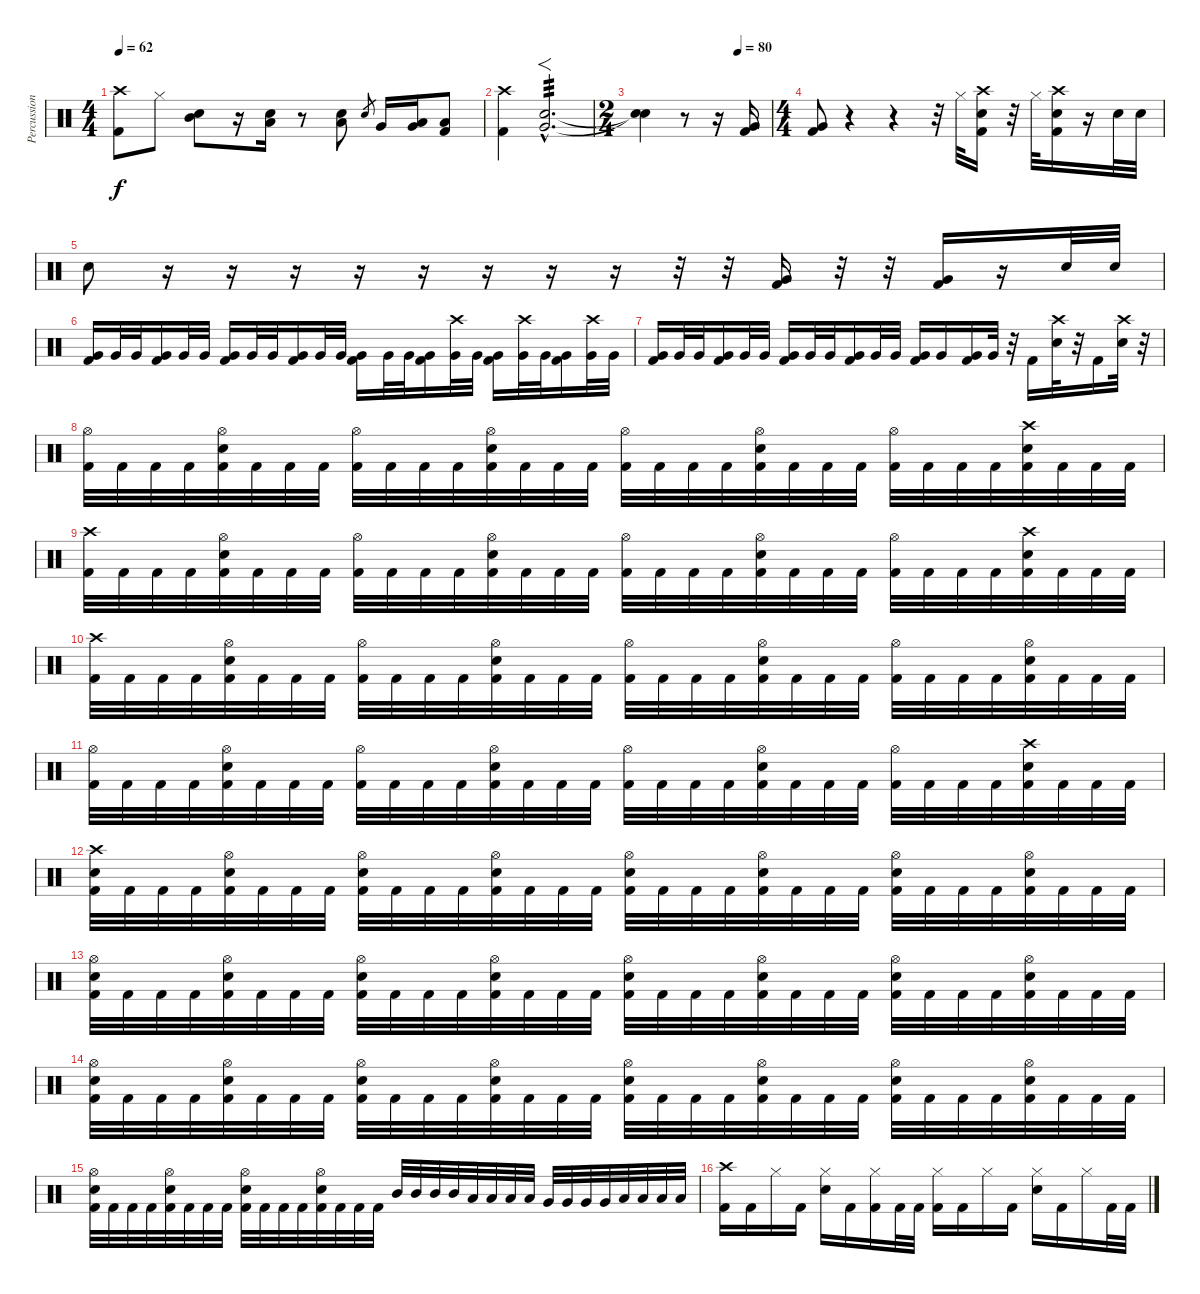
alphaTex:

\track ("Percussions" "Percussion") {instrument percussion}
\staff {score}
\articulation defaults
\ts (4 4)
\tempo 62
\clef neutral
\ks c
("Crash high (hit)" "Kick (hit) 2").8{dy f} "Hi-Hat (closed)".8 ("Electric Snare (hit)" "Mid Tom (hit)").8 r.16 ("Electric Snare (hit)" "Low Tom (hit)").16 r.8 ("Electric Snare (hit)" "Low Floor Tom (hit)").8 "Electric Snare (hit)".8{gr} "Very Low Tom (hit)".16 ("Very Low Tom (hit)" "Low Floor Tom (hit)").16 ("Low Floor Tom (hit)" "Kick (hit) 2").8 |
("Crash high (hit)" "Kick (hit) 2").4 ("Very Low Tom (hit)"{hac} "Electric Snare (hit)"{hac}).2{f d tp 3} |
\ts (2 4)
\tempo (120 0.75)
\tempo (80 0.75)
("Snare (hit)"{t} "Snare (hit)"{t}).4 r.8 r.16 ("Very Low Tom (hit)" "Kick (hit) 2").16 |
\ts (4 4)
("Very Low Tom (hit)" "Kick (hit) 2").8 r.4 r.4 r.32 "Hi-Hat (closed)".32 ("Crash high (hit)" "Electric Snare (hit)" "Kick (hit) 2").16 r.32 "Hi-Hat (closed)".32 ("Crash high (hit)" "Electric Snare (hit)" "Kick (hit) 2").16 r.16 "Electric Snare (hit)".32 "Electric Snare (hit)".32 |
"Electric Snare (hit)".8 r.16 r.16 r.16 r.16 r.16 r.16 r.16 r.16 r.32 r.32 ("Very Low Tom (hit)" "Kick (hit) 2").16 r.32 r.32 ("Very Low Tom (hit)" "Kick (hit) 2").16 r.16 "Electric Snare (hit)".32 "Electric Snare (hit)".32 |
("Very Low Tom (hit)" "Kick (hit) 2").16 "Very Low Tom (hit)".32 "Very Low Tom (hit)".32 ("Very Low Tom (hit)" "Kick (hit) 2").16 "Very Low Tom (hit)".32 "Very Low Tom (hit)".32 ("Very Low Tom (hit)" "Kick (hit) 2").16 "Very Low Tom (hit)".32 "Very Low Tom (hit)".32 ("Very Low Tom (hit)" "Kick (hit) 2").16 "Very Low Tom (hit)".32 "Very Low Tom (hit)".32 ("Very Low Tom (hit)" "Kick (hit) 2").16 "Very Low Tom (hit)".32 "Very Low Tom (hit)".32 ("Very Low Tom (hit)" "Kick (hit) 2").16 ("Crash high (hit)" "Very Low Tom (hit)").32 "Very Low Tom (hit)".32 ("Very Low Tom (hit)" "Kick (hit) 2").16 ("Crash high (hit)" "Very Low Tom (hit)").32 "Very Low Tom (hit)".32 ("Very Low Tom (hit)" "Kick (hit) 2").16 ("Crash high (hit)" "Very Low Tom (hit)").32 "Very Low Tom (hit)".32 |
("Very Low Tom (hit)" "Kick (hit) 2").16 "Very Low Tom (hit)".32 "Very Low Tom (hit)".32 ("Very Low Tom (hit)" "Kick (hit) 2").16 "Very Low Tom (hit)".32 "Very Low Tom (hit)".32 ("Very Low Tom (hit)" "Kick (hit) 2").16 "Very Low Tom (hit)".32 "Very Low Tom (hit)".32 ("Very Low Tom (hit)" "Kick (hit) 2").16 "Very Low Tom (hit)".32 "Very Low Tom (hit)".32 ("Very Low Tom (hit)" "Kick (hit) 2").16 "Very Low Tom (hit)".16 ("Very Low Tom (hit)" "Kick (hit) 2").16 "Very Low Tom (hit)".32 r.32 "Kick (hit) 2".16 ("Crash high (hit)" "Electric Snare (hit)").32 r.32 "Kick (hit) 2".16 ("Crash high (hit)" "Electric Snare (hit)").32 r.32 |
("Hi-Hat (open)" "Kick (hit) 2").32 "Kick (hit) 2".32 "Kick (hit) 2".32 "Kick (hit) 2".32 ("Hi-Hat (open)" "Electric Snare (hit)" "Kick (hit) 2").32 "Kick (hit) 2".32 "Kick (hit) 2".32 "Kick (hit) 2".32 ("Hi-Hat (open)" "Kick (hit) 2").32 "Kick (hit) 2".32 "Kick (hit) 2".32 "Kick (hit) 2".32 ("Hi-Hat (open)" "Electric Snare (hit)" "Kick (hit) 2").32 "Kick (hit) 2".32 "Kick (hit) 2".32 "Kick (hit) 2".32 ("Hi-Hat (open)" "Kick (hit) 2").32 "Kick (hit) 2".32 "Kick (hit) 2".32 "Kick (hit) 2".32 ("Hi-Hat (open)" "Electric Snare (hit)" "Kick (hit) 2").32 "Kick (hit) 2".32 "Kick (hit) 2".32 "Kick (hit) 2".32 ("Hi-Hat (open)" "Kick (hit) 2").32 "Kick (hit) 2".32 "Kick (hit) 2".32 "Kick (hit) 2".32 ("Crash high (hit)" "Electric Snare (hit)" "Kick (hit) 2").32 "Kick (hit) 2".32 "Kick (hit) 2".32 "Kick (hit) 2".32 |
("Crash high (hit)" "Kick (hit) 2").32 "Kick (hit) 2".32 "Kick (hit) 2".32 "Kick (hit) 2".32 ("Hi-Hat (open)" "Electric Snare (hit)" "Kick (hit) 2").32 "Kick (hit) 2".32 "Kick (hit) 2".32 "Kick (hit) 2".32 ("Hi-Hat (open)" "Kick (hit) 2").32 "Kick (hit) 2".32 "Kick (hit) 2".32 "Kick (hit) 2".32 ("Hi-Hat (open)" "Electric Snare (hit)" "Kick (hit) 2").32 "Kick (hit) 2".32 "Kick (hit) 2".32 "Kick (hit) 2".32 ("Hi-Hat (open)" "Kick (hit) 2").32 "Kick (hit) 2".32 "Kick (hit) 2".32 "Kick (hit) 2".32 ("Hi-Hat (open)" "Electric Snare (hit)" "Kick (hit) 2").32 "Kick (hit) 2".32 "Kick (hit) 2".32 "Kick (hit) 2".32 ("Hi-Hat (open)" "Kick (hit) 2").32 "Kick (hit) 2".32 "Kick (hit) 2".32 "Kick (hit) 2".32 ("Crash high (hit)" "Electric Snare (hit)" "Kick (hit) 2").32 "Kick (hit) 2".32 "Kick (hit) 2".32 "Kick (hit) 2".32 |
("Crash high (hit)" "Kick (hit) 2").32 "Kick (hit) 2".32 "Kick (hit) 2".32 "Kick (hit) 2".32 ("Hi-Hat (open)" "Electric Snare (hit)" "Kick (hit) 2").32 "Kick (hit) 2".32 "Kick (hit) 2".32 "Kick (hit) 2".32 ("Hi-Hat (open)" "Kick (hit) 2").32 "Kick (hit) 2".32 "Kick (hit) 2".32 "Kick (hit) 2".32 ("Hi-Hat (open)" "Electric Snare (hit)" "Kick (hit) 2").32 "Kick (hit) 2".32 "Kick (hit) 2".32 "Kick (hit) 2".32 ("Hi-Hat (open)" "Kick (hit) 2").32 "Kick (hit) 2".32 "Kick (hit) 2".32 "Kick (hit) 2".32 ("Hi-Hat (open)" "Electric Snare (hit)" "Kick (hit) 2").32 "Kick (hit) 2".32 "Kick (hit) 2".32 "Kick (hit) 2".32 ("Hi-Hat (open)" "Kick (hit) 2").32 "Kick (hit) 2".32 "Kick (hit) 2".32 "Kick (hit) 2".32 ("Hi-Hat (open)" "Electric Snare (hit)" "Kick (hit) 2").32 "Kick (hit) 2".32 "Kick (hit) 2".32 "Kick (hit) 2".32 |
("Hi-Hat (open)" "Kick (hit) 2").32 "Kick (hit) 2".32 "Kick (hit) 2".32 "Kick (hit) 2".32 ("Hi-Hat (open)" "Electric Snare (hit)" "Kick (hit) 2").32 "Kick (hit) 2".32 "Kick (hit) 2".32 "Kick (hit) 2".32 ("Hi-Hat (open)" "Kick (hit) 2").32 "Kick (hit) 2".32 "Kick (hit) 2".32 "Kick (hit) 2".32 ("Hi-Hat (open)" "Electric Snare (hit)" "Kick (hit) 2").32 "Kick (hit) 2".32 "Kick (hit) 2".32 "Kick (hit) 2".32 ("Hi-Hat (open)" "Kick (hit) 2").32 "Kick (hit) 2".32 "Kick (hit) 2".32 "Kick (hit) 2".32 ("Hi-Hat (open)" "Electric Snare (hit)" "Kick (hit) 2").32 "Kick (hit) 2".32 "Kick (hit) 2".32 "Kick (hit) 2".32 ("Hi-Hat (open)" "Kick (hit) 2").32 "Kick (hit) 2".32 "Kick (hit) 2".32 "Kick (hit) 2".32 ("Crash high (hit)" "Electric Snare (hit)" "Kick (hit) 2").32 "Kick (hit) 2".32 "Kick (hit) 2".32 "Kick (hit) 2".32 |
("Crash high (hit)" "Electric Snare (hit)" "Kick (hit) 2").32 "Kick (hit) 2".32 "Kick (hit) 2".32 "Kick (hit) 2".32 ("Hi-Hat (open)" "Electric Snare (hit)" "Kick (hit) 2").32 "Kick (hit) 2".32 "Kick (hit) 2".32 "Kick (hit) 2".32 ("Hi-Hat (open)" "Electric Snare (hit)" "Kick (hit) 2").32 "Kick (hit) 2".32 "Kick (hit) 2".32 "Kick (hit) 2".32 ("Hi-Hat (open)" "Electric Snare (hit)" "Kick (hit) 2").32 "Kick (hit) 2".32 "Kick (hit) 2".32 "Kick (hit) 2".32 ("Hi-Hat (open)" "Electric Snare (hit)" "Kick (hit) 2").32 "Kick (hit) 2".32 "Kick (hit) 2".32 "Kick (hit) 2".32 ("Hi-Hat (open)" "Electric Snare (hit)" "Kick (hit) 2").32 "Kick (hit) 2".32 "Kick (hit) 2".32 "Kick (hit) 2".32 ("Hi-Hat (open)" "Electric Snare (hit)" "Kick (hit) 2").32 "Kick (hit) 2".32 "Kick (hit) 2".32 "Kick (hit) 2".32 ("Hi-Hat (open)" "Electric Snare (hit)" "Kick (hit) 2").32 "Kick (hit) 2".32 "Kick (hit) 2".32 "Kick (hit) 2".32 |
("Hi-Hat (open)" "Electric Snare (hit)" "Kick (hit) 2").32 "Kick (hit) 2".32 "Kick (hit) 2".32 "Kick (hit) 2".32 ("Hi-Hat (open)" "Electric Snare (hit)" "Kick (hit) 2").32 "Kick (hit) 2".32 "Kick (hit) 2".32 "Kick (hit) 2".32 ("Hi-Hat (open)" "Electric Snare (hit)" "Kick (hit) 2").32 "Kick (hit) 2".32 "Kick (hit) 2".32 "Kick (hit) 2".32 ("Hi-Hat (open)" "Electric Snare (hit)" "Kick (hit) 2").32 "Kick (hit) 2".32 "Kick (hit) 2".32 "Kick (hit) 2".32 ("Hi-Hat (open)" "Electric Snare (hit)" "Kick (hit) 2").32 "Kick (hit) 2".32 "Kick (hit) 2".32 "Kick (hit) 2".32 ("Hi-Hat (open)" "Electric Snare (hit)" "Kick (hit) 2").32 "Kick (hit) 2".32 "Kick (hit) 2".32 "Kick (hit) 2".32 ("Hi-Hat (open)" "Electric Snare (hit)" "Kick (hit) 2").32 "Kick (hit) 2".32 "Kick (hit) 2".32 "Kick (hit) 2".32 ("Hi-Hat (open)" "Electric Snare (hit)" "Kick (hit) 2").32 "Kick (hit) 2".32 "Kick (hit) 2".32 "Kick (hit) 2".32 |
("Hi-Hat (open)" "Electric Snare (hit)" "Kick (hit) 2").32 "Kick (hit) 2".32 "Kick (hit) 2".32 "Kick (hit) 2".32 ("Hi-Hat (open)" "Electric Snare (hit)" "Kick (hit) 2").32 "Kick (hit) 2".32 "Kick (hit) 2".32 "Kick (hit) 2".32 ("Hi-Hat (open)" "Electric Snare (hit)" "Kick (hit) 2").32 "Kick (hit) 2".32 "Kick (hit) 2".32 "Kick (hit) 2".32 ("Hi-Hat (open)" "Electric Snare (hit)" "Kick (hit) 2").32 "Kick (hit) 2".32 "Kick (hit) 2".32 "Kick (hit) 2".32 ("Hi-Hat (open)" "Electric Snare (hit)" "Kick (hit) 2").32 "Kick (hit) 2".32 "Kick (hit) 2".32 "Kick (hit) 2".32 ("Hi-Hat (open)" "Electric Snare (hit)" "Kick (hit) 2").32 "Kick (hit) 2".32 "Kick (hit) 2".32 "Kick (hit) 2".32 ("Hi-Hat (open)" "Electric Snare (hit)" "Kick (hit) 2").32 "Kick (hit) 2".32 "Kick (hit) 2".32 "Kick (hit) 2".32 ("Hi-Hat (open)" "Electric Snare (hit)" "Kick (hit) 2").32 "Kick (hit) 2".32 "Kick (hit) 2".32 "Kick (hit) 2".32 |
("Hi-Hat (open)" "Electric Snare (hit)" "Kick (hit) 2").32 "Kick (hit) 2".32 "Kick (hit) 2".32 "Kick (hit) 2".32 ("Hi-Hat (open)" "Electric Snare (hit)" "Kick (hit) 2").32 "Kick (hit) 2".32 "Kick (hit) 2".32 "Kick (hit) 2".32 ("Hi-Hat (open)" "Electric Snare (hit)" "Kick (hit) 2").32 "Kick (hit) 2".32 "Kick (hit) 2".32 "Kick (hit) 2".32 ("Hi-Hat (open)" "Electric Snare (hit)" "Kick (hit) 2").32 "Kick (hit) 2".32 "Kick (hit) 2".32 "Kick (hit) 2".32 "Mid Tom (hit)".32 "Mid Tom (hit)".32 "Mid Tom (hit)".32 "Mid Tom (hit)".32 "Low Tom (hit)".32 "Low Tom (hit)".32 "Low Tom (hit)".32 "Low Tom (hit)".32 "Very Low Tom (hit)".32 "Very Low Tom (hit)".32 "Very Low Tom (hit)".32 "Very Low Tom (hit)".32 "Low Floor Tom (hit)".32 "Low Floor Tom (hit)".32 "Low Floor Tom (hit)".32 "Low Floor Tom (hit)".32 |
("Crash high (hit)" "Kick (hit) 2").16 "Kick (hit) 2".16 "Hi-Hat (closed)".16 "Kick (hit) 2".16 ("Hi-Hat (closed)" "Electric Snare (hit)").16 "Kick (hit) 2".16 ("Hi-Hat (closed)" "Kick (hit) 2").16 "Kick (hit) 2".32 "Kick (hit) 2".32 ("Hi-Hat (closed)" "Kick (hit) 2").16 "Kick (hit) 2".16 "Hi-Hat (closed)".16 "Kick (hit) 2".16 ("Hi-Hat (closed)" "Electric Snare (hit)").16 "Kick (hit) 2".16 "Hi-Hat (closed)".16 "Kick (hit) 2".32 "Kick (hit) 2".32
